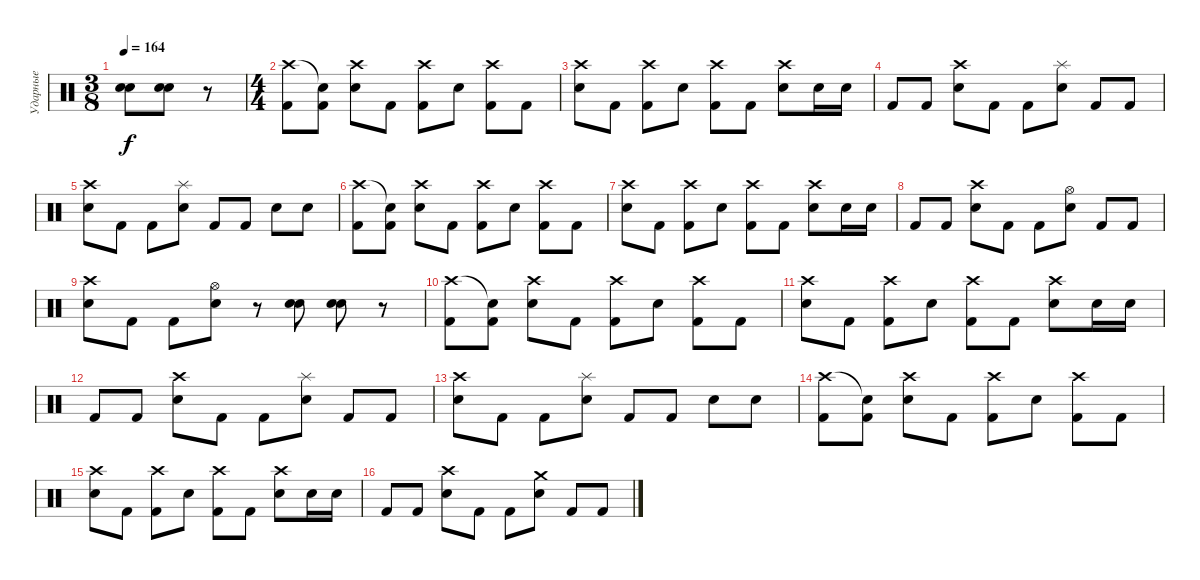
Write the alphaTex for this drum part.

\track ("Ударные" "Ударные") {instrument percussion}
\staff {score}
\articulation defaults
\ts (3 8)
\tempo 164
\clef neutral
\ks c
("Snare (hit) 2" "Snare (hit) 2").8{dy f} ("Snare (hit) 2" "Snare (hit) 2").8 r.8 |
\ts (4 4)
("Crash high (hit)" "Kick (hit) 2").8 ("Snare (hit)"{t} "Kick (hit) 2").8 ("Crash high (hit)" "Snare (hit) 2").8 "Kick (hit) 2".8 ("Crash high (hit)" "Kick (hit) 2").8 "Snare (hit) 2".8 ("Crash high (hit)" "Kick (hit) 2").8 "Kick (hit) 2".8 |
("Crash high (hit)" "Snare (hit) 2").8 "Kick (hit) 2".8 ("Crash high (hit)" "Kick (hit) 2").8 "Snare (hit) 2".8 ("Crash high (hit)" "Kick (hit) 2").8 "Kick (hit) 2".8 ("Crash high (hit)" "Snare (hit) 2").8 "Snare (hit) 2".16 "Snare (hit) 2".16 |
"Kick (hit) 2".8 "Kick (hit) 2".8 ("Crash high (hit)" "Snare (hit) 2").8 "Kick (hit) 2".8 "Kick (hit) 2".8 ("Splash (hit)" "Snare (hit) 2").8 "Kick (hit) 2".8 "Kick (hit) 2".8 |
("Crash high (hit)" "Snare (hit) 2").8 "Kick (hit) 2".8 "Kick (hit) 2".8 ("Splash (hit)" "Snare (hit) 2").8 "Kick (hit) 2".8 "Kick (hit) 2".8 "Snare (hit) 2".8 "Snare (hit) 2".8 |
("Crash high (hit)" "Kick (hit) 2").8 ("Snare (hit)"{t} "Kick (hit) 2").8 ("Crash high (hit)" "Snare (hit) 2").8 "Kick (hit) 2".8 ("Crash high (hit)" "Kick (hit) 2").8 "Snare (hit) 2".8 ("Crash high (hit)" "Kick (hit) 2").8 "Kick (hit) 2".8 |
("Crash high (hit)" "Snare (hit) 2").8 "Kick (hit) 2".8 ("Crash high (hit)" "Kick (hit) 2").8 "Snare (hit) 2".8 ("Crash high (hit)" "Kick (hit) 2").8 "Kick (hit) 2".8 ("Crash high (hit)" "Snare (hit) 2").8 "Snare (hit) 2".16 "Snare (hit) 2".16 |
"Kick (hit) 2".8 "Kick (hit) 2".8 ("Crash high (hit)" "Snare (hit) 2").8 "Kick (hit) 2".8 "Kick (hit) 2".8 ("Hi-Hat (open)" "Snare (hit) 2").8 "Kick (hit) 2".8 "Kick (hit) 2".8 |
("Crash high (hit)" "Snare (hit) 2").8 "Kick (hit) 2".8 "Kick (hit) 2".8 ("Hi-Hat (open)" "Snare (hit) 2").8 r.8 ("Snare (hit) 2" "Snare (hit) 2").8 ("Snare (hit) 2" "Snare (hit) 2").8 r.8 |
("Crash high (hit)" "Kick (hit) 2").8 ("Snare (hit)"{t} "Kick (hit) 2").8 ("Crash high (hit)" "Snare (hit) 2").8 "Kick (hit) 2".8 ("Crash high (hit)" "Kick (hit) 2").8 "Snare (hit) 2".8 ("Crash high (hit)" "Kick (hit) 2").8 "Kick (hit) 2".8 |
("Crash high (hit)" "Snare (hit) 2").8 "Kick (hit) 2".8 ("Crash high (hit)" "Kick (hit) 2").8 "Snare (hit) 2".8 ("Crash high (hit)" "Kick (hit) 2").8 "Kick (hit) 2".8 ("Crash high (hit)" "Snare (hit) 2").8 "Snare (hit) 2".16 "Snare (hit) 2".16 |
"Kick (hit) 2".8 "Kick (hit) 2".8 ("Crash high (hit)" "Snare (hit) 2").8 "Kick (hit) 2".8 "Kick (hit) 2".8 ("Splash (hit)" "Snare (hit) 2").8 "Kick (hit) 2".8 "Kick (hit) 2".8 |
("Crash high (hit)" "Snare (hit) 2").8 "Kick (hit) 2".8 "Kick (hit) 2".8 ("Splash (hit)" "Snare (hit) 2").8 "Kick (hit) 2".8 "Kick (hit) 2".8 "Snare (hit) 2".8 "Snare (hit) 2".8 |
("Crash high (hit)" "Kick (hit) 2").8 ("Snare (hit)"{t} "Kick (hit) 2").8 ("Crash high (hit)" "Snare (hit) 2").8 "Kick (hit) 2".8 ("Crash high (hit)" "Kick (hit) 2").8 "Snare (hit) 2".8 ("Crash high (hit)" "Kick (hit) 2").8 "Kick (hit) 2".8 |
("Crash high (hit)" "Snare (hit) 2").8 "Kick (hit) 2".8 ("Crash high (hit)" "Kick (hit) 2").8 "Snare (hit) 2".8 ("Crash high (hit)" "Kick (hit) 2").8 "Kick (hit) 2".8 ("Crash high (hit)" "Snare (hit) 2").8 "Snare (hit) 2".16 "Snare (hit) 2".16 |
"Kick (hit) 2".8 "Kick (hit) 2".8 ("Crash high (hit)" "Snare (hit) 2").8 "Kick (hit) 2".8 "Kick (hit) 2".8 ("Crash medium (hit)" "Snare (hit) 2").8 "Kick (hit) 2".8 "Kick (hit) 2".8
